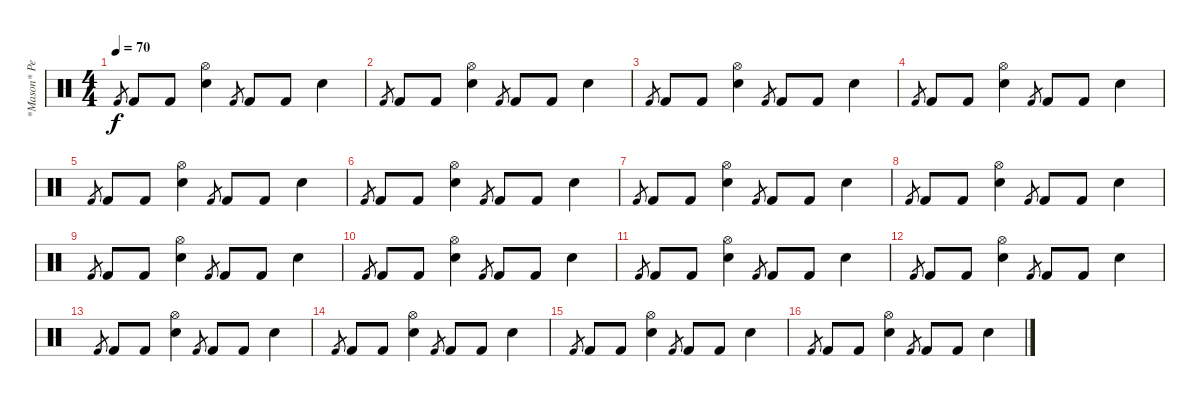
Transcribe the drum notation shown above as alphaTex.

\track ("*Mason* Percussion" "*Mason* Pe") {instrument percussion}
\staff {score}
\articulation defaults
\ts (4 4)
\tempo 70
\clef neutral
\ks c "Kick (hit) 2".8{gr dy f} "Kick (hit) 2".8 "Kick (hit) 2".8
("Hi-Hat (open)" "Snare (hit) 2").4 "Kick (hit) 2".8{gr} "Kick (hit) 2".8 "Kick (hit) 2".8 "Snare (hit) 2".4 |
"Kick (hit) 2".8{gr} "Kick (hit) 2".8 "Kick (hit) 2".8 ("Hi-Hat (open)" "Snare (hit) 2").4 "Kick (hit) 2".8{gr} "Kick (hit) 2".8 "Kick (hit) 2".8 "Snare (hit) 2".4 |
"Kick (hit) 2".8{gr} "Kick (hit) 2".8 "Kick (hit) 2".8 ("Hi-Hat (open)" "Snare (hit) 2").4 "Kick (hit) 2".8{gr} "Kick (hit) 2".8 "Kick (hit) 2".8 "Snare (hit) 2".4 |
"Kick (hit) 2".8{gr} "Kick (hit) 2".8 "Kick (hit) 2".8 ("Hi-Hat (open)" "Snare (hit) 2").4 "Kick (hit) 2".8{gr} "Kick (hit) 2".8 "Kick (hit) 2".8 "Snare (hit) 2".4 |
"Kick (hit) 2".8{gr} "Kick (hit) 2".8 "Kick (hit) 2".8 ("Hi-Hat (open)" "Snare (hit) 2").4 "Kick (hit) 2".8{gr} "Kick (hit) 2".8 "Kick (hit) 2".8 "Snare (hit) 2".4 |
"Kick (hit) 2".8{gr} "Kick (hit) 2".8 "Kick (hit) 2".8 ("Hi-Hat (open)" "Snare (hit) 2").4 "Kick (hit) 2".8{gr} "Kick (hit) 2".8 "Kick (hit) 2".8 "Snare (hit) 2".4 |
"Kick (hit) 2".8{gr} "Kick (hit) 2".8 "Kick (hit) 2".8 ("Hi-Hat (open)" "Snare (hit) 2").4 "Kick (hit) 2".8{gr} "Kick (hit) 2".8 "Kick (hit) 2".8 "Snare (hit) 2".4 |
"Kick (hit) 2".8{gr} "Kick (hit) 2".8 "Kick (hit) 2".8 ("Hi-Hat (open)" "Snare (hit) 2").4 "Kick (hit) 2".8{gr} "Kick (hit) 2".8 "Kick (hit) 2".8 "Snare (hit) 2".4 |
"Kick (hit) 2".8{gr} "Kick (hit) 2".8 "Kick (hit) 2".8 ("Hi-Hat (open)" "Snare (hit) 2").4 "Kick (hit) 2".8{gr} "Kick (hit) 2".8 "Kick (hit) 2".8 "Snare (hit) 2".4 |
"Kick (hit) 2".8{gr} "Kick (hit) 2".8 "Kick (hit) 2".8 ("Hi-Hat (open)" "Snare (hit) 2").4 "Kick (hit) 2".8{gr} "Kick (hit) 2".8 "Kick (hit) 2".8 "Snare (hit) 2".4 |
"Kick (hit) 2".8{gr} "Kick (hit) 2".8 "Kick (hit) 2".8 ("Hi-Hat (open)" "Snare (hit) 2").4 "Kick (hit) 2".8{gr} "Kick (hit) 2".8 "Kick (hit) 2".8 "Snare (hit) 2".4 |
"Kick (hit) 2".8{gr} "Kick (hit) 2".8 "Kick (hit) 2".8 ("Hi-Hat (open)" "Snare (hit) 2").4 "Kick (hit) 2".8{gr} "Kick (hit) 2".8 "Kick (hit) 2".8 "Snare (hit) 2".4 |
"Kick (hit) 2".8{gr} "Kick (hit) 2".8 "Kick (hit) 2".8 ("Hi-Hat (open)" "Snare (hit) 2").4 "Kick (hit) 2".8{gr} "Kick (hit) 2".8 "Kick (hit) 2".8 "Snare (hit) 2".4 |
"Kick (hit) 2".8{gr} "Kick (hit) 2".8 "Kick (hit) 2".8 ("Hi-Hat (open)" "Snare (hit) 2").4 "Kick (hit) 2".8{gr} "Kick (hit) 2".8 "Kick (hit) 2".8 "Snare (hit) 2".4 |
"Kick (hit) 2".8{gr} "Kick (hit) 2".8 "Kick (hit) 2".8 ("Hi-Hat (open)" "Snare (hit) 2").4 "Kick (hit) 2".8{gr} "Kick (hit) 2".8 "Kick (hit) 2".8 "Snare (hit) 2".4 |
"Kick (hit) 2".8{gr} "Kick (hit) 2".8 "Kick (hit) 2".8 ("Hi-Hat (open)" "Snare (hit) 2").4 "Kick (hit) 2".8{gr} "Kick (hit) 2".8 "Kick (hit) 2".8 "Snare (hit) 2".4
